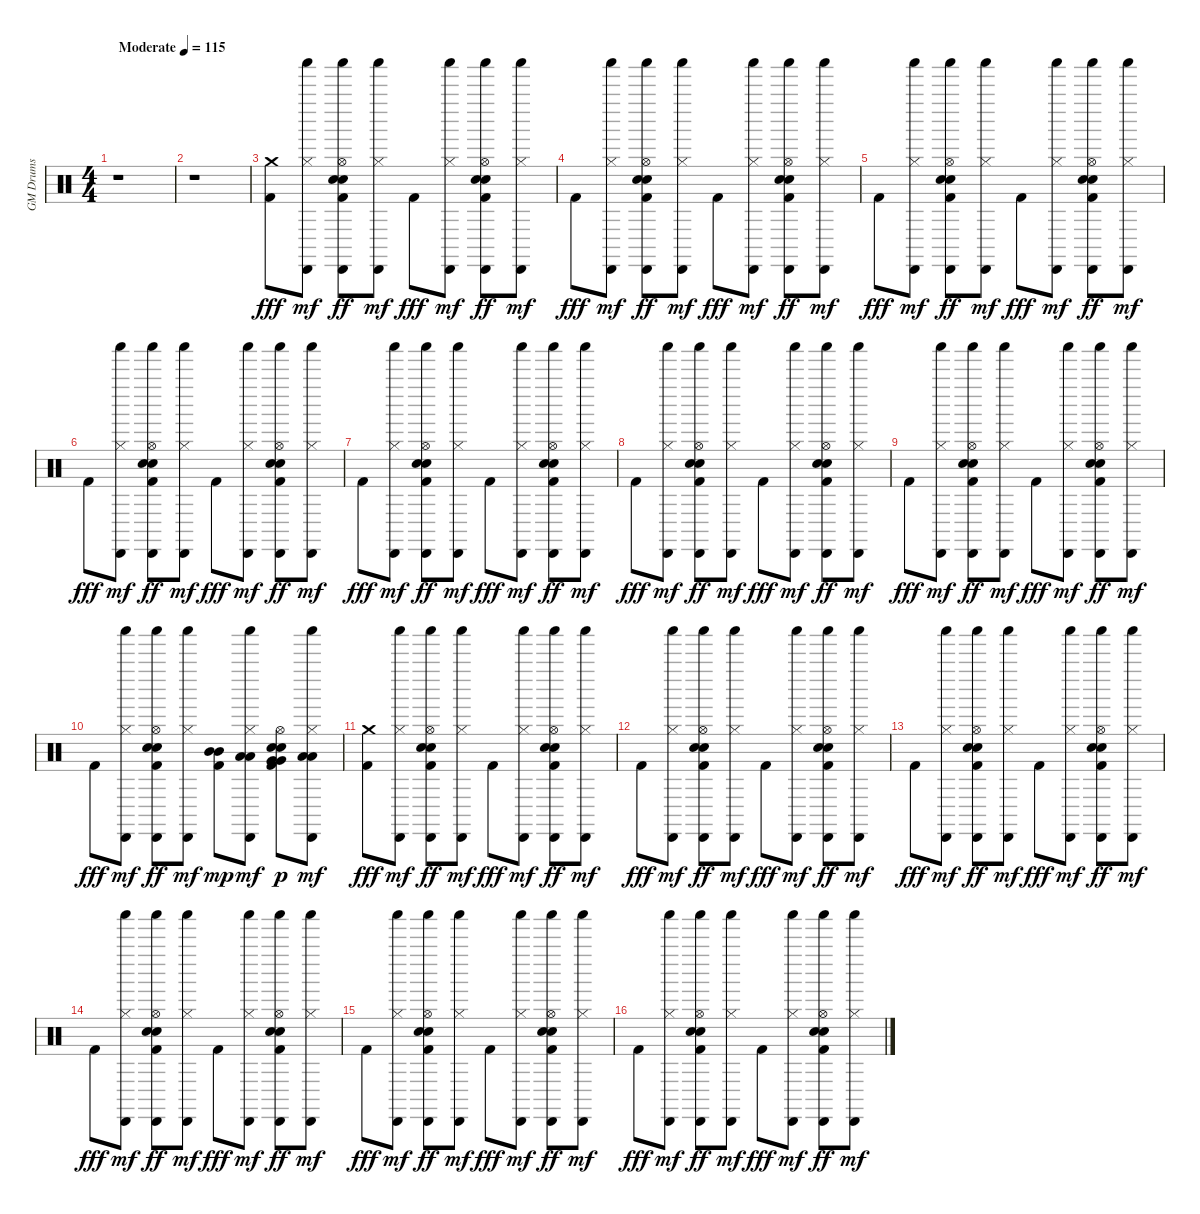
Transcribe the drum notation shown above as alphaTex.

\track ("GM Drums" "GM Drums") {instrument percussion}
\staff {score}
\articulation defaults
\ts (4 4)
\tempo (115 "Moderate")
\clef neutral
\ks c
r.1{dy fff} |
r.1 |
("Kick (hit) 2" "Crash medium (hit)").8 ("Hi-Hat (closed)" "Cabasa (hit)" "Shaker (hit)").8{dy mf} ("Kick (hit) 2" "Snare (hit) 2" "Hand Clap (hit)" "Hi-Hat (open)" "Cabasa (hit)" "Shaker (hit)").8{dy ff} ("Hi-Hat (closed)" "Cabasa (hit)" "Shaker (hit)").8{dy mf} "Kick (hit) 2".8{dy fff} ("Hi-Hat (closed)" "Cabasa (hit)" "Shaker (hit)").8{dy mf} ("Kick (hit) 2" "Snare (hit) 2" "Hand Clap (hit)" "Hi-Hat (open)" "Cabasa (hit)" "Shaker (hit)").8{dy ff} ("Hi-Hat (closed)" "Cabasa (hit)" "Shaker (hit)").8{dy mf} |
"Kick (hit) 2".8{dy fff} ("Hi-Hat (closed)" "Cabasa (hit)" "Shaker (hit)").8{dy mf} ("Kick (hit) 2" "Snare (hit) 2" "Hand Clap (hit)" "Hi-Hat (open)" "Cabasa (hit)" "Shaker (hit)").8{dy ff} ("Hi-Hat (closed)" "Cabasa (hit)" "Shaker (hit)").8{dy mf} "Kick (hit) 2".8{dy fff} ("Hi-Hat (closed)" "Cabasa (hit)" "Shaker (hit)").8{dy mf} ("Kick (hit) 2" "Snare (hit) 2" "Hand Clap (hit)" "Hi-Hat (open)" "Cabasa (hit)" "Shaker (hit)").8{dy ff} ("Hi-Hat (closed)" "Cabasa (hit)" "Shaker (hit)").8{dy mf} |
"Kick (hit) 2".8{dy fff} ("Hi-Hat (closed)" "Cabasa (hit)" "Shaker (hit)").8{dy mf} ("Kick (hit) 2" "Snare (hit) 2" "Hand Clap (hit)" "Hi-Hat (open)" "Cabasa (hit)" "Shaker (hit)").8{dy ff} ("Hi-Hat (closed)" "Cabasa (hit)" "Shaker (hit)").8{dy mf} "Kick (hit) 2".8{dy fff} ("Hi-Hat (closed)" "Cabasa (hit)" "Shaker (hit)").8{dy mf} ("Kick (hit) 2" "Snare (hit) 2" "Hand Clap (hit)" "Hi-Hat (open)" "Cabasa (hit)" "Shaker (hit)").8{dy ff} ("Hi-Hat (closed)" "Cabasa (hit)" "Shaker (hit)").8{dy mf} |
"Kick (hit) 2".8{dy fff} ("Hi-Hat (closed)" "Cabasa (hit)" "Shaker (hit)").8{dy mf} ("Kick (hit) 2" "Snare (hit) 2" "Hand Clap (hit)" "Hi-Hat (open)" "Cabasa (hit)" "Shaker (hit)").8{dy ff} ("Hi-Hat (closed)" "Cabasa (hit)" "Shaker (hit)").8{dy mf} "Kick (hit) 2".8{dy fff} ("Hi-Hat (closed)" "Cabasa (hit)" "Shaker (hit)").8{dy mf} ("Kick (hit) 2" "Snare (hit) 2" "Hand Clap (hit)" "Hi-Hat (open)" "Cabasa (hit)" "Shaker (hit)").8{dy ff} ("Hi-Hat (closed)" "Cabasa (hit)" "Shaker (hit)").8{dy mf} |
"Kick (hit) 2".8{dy fff} ("Hi-Hat (closed)" "Cabasa (hit)" "Shaker (hit)").8{dy mf} ("Kick (hit) 2" "Snare (hit) 2" "Hand Clap (hit)" "Hi-Hat (open)" "Cabasa (hit)" "Shaker (hit)").8{dy ff} ("Hi-Hat (closed)" "Cabasa (hit)" "Shaker (hit)").8{dy mf} "Kick (hit) 2".8{dy fff} ("Hi-Hat (closed)" "Cabasa (hit)" "Shaker (hit)").8{dy mf} ("Kick (hit) 2" "Snare (hit) 2" "Hand Clap (hit)" "Hi-Hat (open)" "Cabasa (hit)" "Shaker (hit)").8{dy ff} ("Hi-Hat (closed)" "Cabasa (hit)" "Shaker (hit)").8{dy mf} |
"Kick (hit) 2".8{dy fff} ("Hi-Hat (closed)" "Cabasa (hit)" "Shaker (hit)").8{dy mf} ("Kick (hit) 2" "Snare (hit) 2" "Hand Clap (hit)" "Hi-Hat (open)" "Cabasa (hit)" "Shaker (hit)").8{dy ff} ("Hi-Hat (closed)" "Cabasa (hit)" "Shaker (hit)").8{dy mf} "Kick (hit) 2".8{dy fff} ("Hi-Hat (closed)" "Cabasa (hit)" "Shaker (hit)").8{dy mf} ("Kick (hit) 2" "Snare (hit) 2" "Hand Clap (hit)" "Hi-Hat (open)" "Cabasa (hit)" "Shaker (hit)").8{dy ff} ("Hi-Hat (closed)" "Cabasa (hit)" "Shaker (hit)").8{dy mf} |
"Kick (hit) 2".8{dy fff} ("Hi-Hat (closed)" "Cabasa (hit)" "Shaker (hit)").8{dy mf} ("Kick (hit) 2" "Snare (hit) 2" "Hand Clap (hit)" "Hi-Hat (open)" "Cabasa (hit)" "Shaker (hit)").8{dy ff} ("Hi-Hat (closed)" "Cabasa (hit)" "Shaker (hit)").8{dy mf} "Kick (hit) 2".8{dy fff} ("Hi-Hat (closed)" "Cabasa (hit)" "Shaker (hit)").8{dy mf} ("Kick (hit) 2" "Snare (hit) 2" "Hand Clap (hit)" "Hi-Hat (open)" "Cabasa (hit)" "Shaker (hit)").8{dy ff} ("Hi-Hat (closed)" "Cabasa (hit)" "Shaker (hit)").8{dy mf} |
"Kick (hit) 2".8{dy fff} ("Hi-Hat (closed)" "Cabasa (hit)" "Shaker (hit)").8{dy mf} ("Kick (hit) 2" "Snare (hit) 2" "Hand Clap (hit)" "Hi-Hat (open)" "Cabasa (hit)" "Shaker (hit)").8{dy ff} ("Hi-Hat (closed)" "Cabasa (hit)" "Shaker (hit)").8{dy mf} ("Kick (hit) 2" "Mid Tom (hit)" "Mid Tom (hit)").8{dy mp} ("Hi-Hat (closed)" "Low Tom (hit)" "Low Tom (hit)" "Cabasa (hit)" "Shaker (hit)").8{dy mf} ("Kick (hit) 2" "Snare (hit) 2" "Hand Clap (hit)" "Very Low Tom (hit)" "Very Low Tom (hit)" "Hi-Hat (open)").8{dy p} ("Hi-Hat (closed)" "Low Floor Tom (hit)" "Low Floor Tom (hit)" "Cabasa (hit)" "Shaker (hit)").8{dy mf} |
("Kick (hit) 2" "Crash medium (hit)").8{dy fff} ("Hi-Hat (closed)" "Cabasa (hit)" "Shaker (hit)").8{dy mf} ("Kick (hit) 2" "Snare (hit) 2" "Hand Clap (hit)" "Hi-Hat (open)" "Cabasa (hit)" "Shaker (hit)").8{dy ff} ("Hi-Hat (closed)" "Cabasa (hit)" "Shaker (hit)").8{dy mf} "Kick (hit) 2".8{dy fff} ("Hi-Hat (closed)" "Cabasa (hit)" "Shaker (hit)").8{dy mf} ("Kick (hit) 2" "Snare (hit) 2" "Hand Clap (hit)" "Hi-Hat (open)" "Cabasa (hit)" "Shaker (hit)").8{dy ff} ("Hi-Hat (closed)" "Cabasa (hit)" "Shaker (hit)").8{dy mf} |
"Kick (hit) 2".8{dy fff} ("Hi-Hat (closed)" "Cabasa (hit)" "Shaker (hit)").8{dy mf} ("Kick (hit) 2" "Snare (hit) 2" "Hand Clap (hit)" "Hi-Hat (open)" "Cabasa (hit)" "Shaker (hit)").8{dy ff} ("Hi-Hat (closed)" "Cabasa (hit)" "Shaker (hit)").8{dy mf} "Kick (hit) 2".8{dy fff} ("Hi-Hat (closed)" "Cabasa (hit)" "Shaker (hit)").8{dy mf} ("Kick (hit) 2" "Snare (hit) 2" "Hand Clap (hit)" "Hi-Hat (open)" "Cabasa (hit)" "Shaker (hit)").8{dy ff} ("Hi-Hat (closed)" "Cabasa (hit)" "Shaker (hit)").8{dy mf} |
"Kick (hit) 2".8{dy fff} ("Hi-Hat (closed)" "Cabasa (hit)" "Shaker (hit)").8{dy mf} ("Kick (hit) 2" "Snare (hit) 2" "Hand Clap (hit)" "Hi-Hat (open)" "Cabasa (hit)" "Shaker (hit)").8{dy ff} ("Hi-Hat (closed)" "Cabasa (hit)" "Shaker (hit)").8{dy mf} "Kick (hit) 2".8{dy fff} ("Hi-Hat (closed)" "Cabasa (hit)" "Shaker (hit)").8{dy mf} ("Kick (hit) 2" "Snare (hit) 2" "Hand Clap (hit)" "Hi-Hat (open)" "Cabasa (hit)" "Shaker (hit)").8{dy ff} ("Hi-Hat (closed)" "Cabasa (hit)" "Shaker (hit)").8{dy mf} |
"Kick (hit) 2".8{dy fff} ("Hi-Hat (closed)" "Cabasa (hit)" "Shaker (hit)").8{dy mf} ("Kick (hit) 2" "Snare (hit) 2" "Hand Clap (hit)" "Hi-Hat (open)" "Cabasa (hit)" "Shaker (hit)").8{dy ff} ("Hi-Hat (closed)" "Cabasa (hit)" "Shaker (hit)").8{dy mf} "Kick (hit) 2".8{dy fff} ("Hi-Hat (closed)" "Cabasa (hit)" "Shaker (hit)").8{dy mf} ("Kick (hit) 2" "Snare (hit) 2" "Hand Clap (hit)" "Hi-Hat (open)" "Cabasa (hit)" "Shaker (hit)").8{dy ff} ("Hi-Hat (closed)" "Cabasa (hit)" "Shaker (hit)").8{dy mf} |
"Kick (hit) 2".8{dy fff} ("Hi-Hat (closed)" "Cabasa (hit)" "Shaker (hit)").8{dy mf} ("Kick (hit) 2" "Snare (hit) 2" "Hand Clap (hit)" "Hi-Hat (open)" "Cabasa (hit)" "Shaker (hit)").8{dy ff} ("Hi-Hat (closed)" "Cabasa (hit)" "Shaker (hit)").8{dy mf} "Kick (hit) 2".8{dy fff} ("Hi-Hat (closed)" "Cabasa (hit)" "Shaker (hit)").8{dy mf} ("Kick (hit) 2" "Snare (hit) 2" "Hand Clap (hit)" "Hi-Hat (open)" "Cabasa (hit)" "Shaker (hit)").8{dy ff} ("Hi-Hat (closed)" "Cabasa (hit)" "Shaker (hit)").8{dy mf} |
"Kick (hit) 2".8{dy fff} ("Hi-Hat (closed)" "Cabasa (hit)" "Shaker (hit)").8{dy mf} ("Kick (hit) 2" "Snare (hit) 2" "Hand Clap (hit)" "Hi-Hat (open)" "Cabasa (hit)" "Shaker (hit)").8{dy ff} ("Hi-Hat (closed)" "Cabasa (hit)" "Shaker (hit)").8{dy mf} "Kick (hit) 2".8{dy fff} ("Hi-Hat (closed)" "Cabasa (hit)" "Shaker (hit)").8{dy mf} ("Kick (hit) 2" "Snare (hit) 2" "Hand Clap (hit)" "Hi-Hat (open)" "Cabasa (hit)" "Shaker (hit)").8{dy ff} ("Hi-Hat (closed)" "Cabasa (hit)" "Shaker (hit)").8{dy mf}
